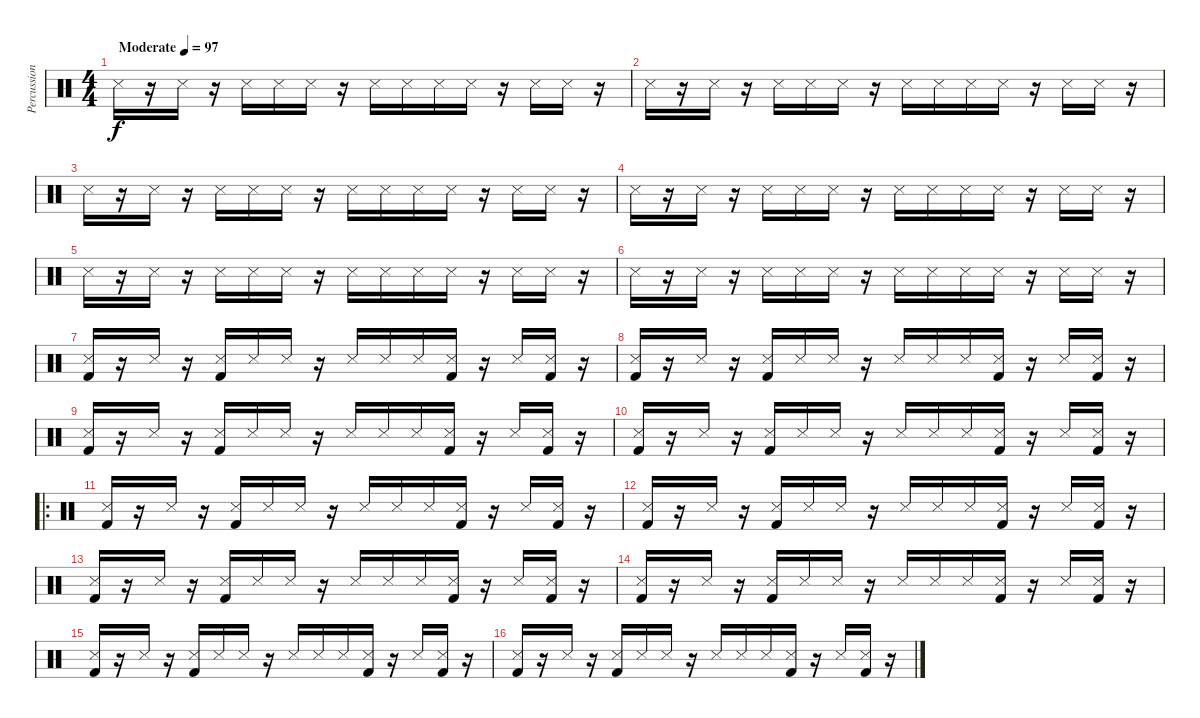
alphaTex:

\track ("Percussions" "Percussion") {instrument percussion}
\staff {score}
\articulation defaults
\ts (4 4)
\tempo (97 "Moderate")
\clef neutral
\ks c "Snare (side stick) 3".16{dy f}
r.16 "Snare (side stick) 3".16 r.16 "Snare (side stick) 3".16 "Snare (side stick) 3".16 "Snare (side stick) 3".16 r.16 "Snare (side stick) 3".16 "Snare (side stick) 3".16 "Snare (side stick) 3".16 "Snare (side stick) 3".16 r.16 "Snare (side stick) 3".16 "Snare (side stick) 3".16 r.16 |
"Snare (side stick) 3".16 r.16 "Snare (side stick) 3".16 r.16 "Snare (side stick) 3".16 "Snare (side stick) 3".16 "Snare (side stick) 3".16 r.16 "Snare (side stick) 3".16 "Snare (side stick) 3".16 "Snare (side stick) 3".16 "Snare (side stick) 3".16 r.16 "Snare (side stick) 3".16 "Snare (side stick) 3".16 r.16 |
"Snare (side stick) 3".16 r.16 "Snare (side stick) 3".16 r.16 "Snare (side stick) 3".16 "Snare (side stick) 3".16 "Snare (side stick) 3".16 r.16 "Snare (side stick) 3".16 "Snare (side stick) 3".16 "Snare (side stick) 3".16 "Snare (side stick) 3".16 r.16 "Snare (side stick) 3".16 "Snare (side stick) 3".16 r.16 |
"Snare (side stick) 3".16 r.16 "Snare (side stick) 3".16 r.16 "Snare (side stick) 3".16 "Snare (side stick) 3".16 "Snare (side stick) 3".16 r.16 "Snare (side stick) 3".16 "Snare (side stick) 3".16 "Snare (side stick) 3".16 "Snare (side stick) 3".16 r.16 "Snare (side stick) 3".16 "Snare (side stick) 3".16 r.16 |
"Snare (side stick) 3".16 r.16 "Snare (side stick) 3".16 r.16 "Snare (side stick) 3".16 "Snare (side stick) 3".16 "Snare (side stick) 3".16 r.16 "Snare (side stick) 3".16 "Snare (side stick) 3".16 "Snare (side stick) 3".16 "Snare (side stick) 3".16 r.16 "Snare (side stick) 3".16 "Snare (side stick) 3".16 r.16 |
"Snare (side stick) 3".16 r.16 "Snare (side stick) 3".16 r.16 "Snare (side stick) 3".16 "Snare (side stick) 3".16 "Snare (side stick) 3".16 r.16 "Snare (side stick) 3".16 "Snare (side stick) 3".16 "Snare (side stick) 3".16 "Snare (side stick) 3".16 r.16 "Snare (side stick) 3".16 "Snare (side stick) 3".16 r.16 |
("Snare (side stick) 3" "Kick (hit) 2").16 r.16 "Snare (side stick) 3".16 r.16 ("Snare (side stick) 3" "Kick (hit) 2").16 "Snare (side stick) 3".16 "Snare (side stick) 3".16 r.16 "Snare (side stick) 3".16 "Snare (side stick) 3".16 "Snare (side stick) 3".16 ("Snare (side stick) 3" "Kick (hit) 2").16 r.16 "Snare (side stick) 3".16 ("Snare (side stick) 3" "Kick (hit) 2").16 r.16 |
("Snare (side stick) 3" "Kick (hit) 2").16 r.16 "Snare (side stick) 3".16 r.16 ("Snare (side stick) 3" "Kick (hit) 2").16 "Snare (side stick) 3".16 "Snare (side stick) 3".16 r.16 "Snare (side stick) 3".16 "Snare (side stick) 3".16 "Snare (side stick) 3".16 ("Snare (side stick) 3" "Kick (hit) 2").16 r.16 "Snare (side stick) 3".16 ("Snare (side stick) 3" "Kick (hit) 2").16 r.16 |
("Snare (side stick) 3" "Kick (hit) 2").16 r.16 "Snare (side stick) 3".16 r.16 ("Snare (side stick) 3" "Kick (hit) 2").16 "Snare (side stick) 3".16 "Snare (side stick) 3".16 r.16 "Snare (side stick) 3".16 "Snare (side stick) 3".16 "Snare (side stick) 3".16 ("Snare (side stick) 3" "Kick (hit) 2").16 r.16 "Snare (side stick) 3".16 ("Snare (side stick) 3" "Kick (hit) 2").16 r.16 |
("Snare (side stick) 3" "Kick (hit) 2").16 r.16 "Snare (side stick) 3".16 r.16 ("Snare (side stick) 3" "Kick (hit) 2").16 "Snare (side stick) 3".16 "Snare (side stick) 3".16 r.16 "Snare (side stick) 3".16 "Snare (side stick) 3".16 "Snare (side stick) 3".16 ("Snare (side stick) 3" "Kick (hit) 2").16 r.16 "Snare (side stick) 3".16 ("Snare (side stick) 3" "Kick (hit) 2").16 r.16 |
\ro
("Snare (side stick) 3" "Kick (hit) 2").16 r.16 "Snare (side stick) 3".16 r.16 ("Snare (side stick) 3" "Kick (hit) 2").16 "Snare (side stick) 3".16 "Snare (side stick) 3".16 r.16 "Snare (side stick) 3".16 "Snare (side stick) 3".16 "Snare (side stick) 3".16 ("Snare (side stick) 3" "Kick (hit) 2").16 r.16 "Snare (side stick) 3".16 ("Snare (side stick) 3" "Kick (hit) 2").16 r.16 |
("Snare (side stick) 3" "Kick (hit) 2").16 r.16 "Snare (side stick) 3".16 r.16 ("Snare (side stick) 3" "Kick (hit) 2").16 "Snare (side stick) 3".16 "Snare (side stick) 3".16 r.16 "Snare (side stick) 3".16 "Snare (side stick) 3".16 "Snare (side stick) 3".16 ("Snare (side stick) 3" "Kick (hit) 2").16 r.16 "Snare (side stick) 3".16 ("Snare (side stick) 3" "Kick (hit) 2").16 r.16 |
("Snare (side stick) 3" "Kick (hit) 2").16 r.16 "Snare (side stick) 3".16 r.16 ("Snare (side stick) 3" "Kick (hit) 2").16 "Snare (side stick) 3".16 "Snare (side stick) 3".16 r.16 "Snare (side stick) 3".16 "Snare (side stick) 3".16 "Snare (side stick) 3".16 ("Snare (side stick) 3" "Kick (hit) 2").16 r.16 "Snare (side stick) 3".16 ("Snare (side stick) 3" "Kick (hit) 2").16 r.16 |
("Snare (side stick) 3" "Kick (hit) 2").16 r.16 "Snare (side stick) 3".16 r.16 ("Snare (side stick) 3" "Kick (hit) 2").16 "Snare (side stick) 3".16 "Snare (side stick) 3".16 r.16 "Snare (side stick) 3".16 "Snare (side stick) 3".16 "Snare (side stick) 3".16 ("Snare (side stick) 3" "Kick (hit) 2").16 r.16 "Snare (side stick) 3".16 ("Snare (side stick) 3" "Kick (hit) 2").16 r.16 |
("Snare (side stick) 3" "Kick (hit) 2").16 r.16 "Snare (side stick) 3".16 r.16 ("Snare (side stick) 3" "Kick (hit) 2").16 "Snare (side stick) 3".16 "Snare (side stick) 3".16 r.16 "Snare (side stick) 3".16 "Snare (side stick) 3".16 "Snare (side stick) 3".16 ("Snare (side stick) 3" "Kick (hit) 2").16 r.16 "Snare (side stick) 3".16 ("Snare (side stick) 3" "Kick (hit) 2").16 r.16 |
("Snare (side stick) 3" "Kick (hit) 2").16 r.16 "Snare (side stick) 3".16 r.16 ("Snare (side stick) 3" "Kick (hit) 2").16 "Snare (side stick) 3".16 "Snare (side stick) 3".16 r.16 "Snare (side stick) 3".16 "Snare (side stick) 3".16 "Snare (side stick) 3".16 ("Snare (side stick) 3" "Kick (hit) 2").16 r.16 "Snare (side stick) 3".16 ("Snare (side stick) 3" "Kick (hit) 2").16 r.16
